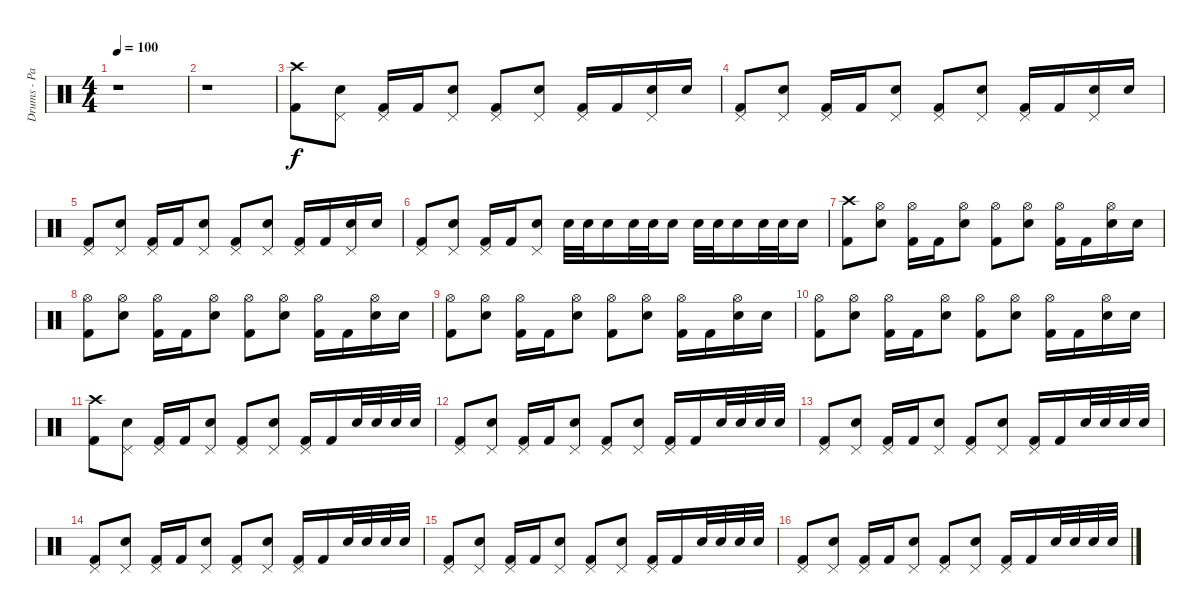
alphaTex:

\track ("Drums - Pat Thetic" "Drums - Pa") {instrument percussion}
\staff {score}
\articulation defaults
\ts (4 4)
\tempo 100
\clef neutral
\ks c
r.1{dy f} |
r.1 |
("Crash high (hit)" "Kick (hit) 2").8 ("Pedal Hi-Hat (hit)" "Electric Snare (hit)").8 ("Pedal Hi-Hat (hit)" "Kick (hit) 2").16 "Kick (hit) 2".16 ("Pedal Hi-Hat (hit)" "Electric Snare (hit)").8 ("Pedal Hi-Hat (hit)" "Kick (hit) 2").8 ("Pedal Hi-Hat (hit)" "Electric Snare (hit)").8 ("Pedal Hi-Hat (hit)" "Kick (hit) 2").16 "Kick (hit) 2".16 ("Pedal Hi-Hat (hit)" "Electric Snare (hit)").16 "Electric Snare (hit)".16 |
("Pedal Hi-Hat (hit)" "Kick (hit) 2").8 ("Pedal Hi-Hat (hit)" "Electric Snare (hit)").8 ("Pedal Hi-Hat (hit)" "Kick (hit) 2").16 "Kick (hit) 2".16 ("Pedal Hi-Hat (hit)" "Electric Snare (hit)").8 ("Pedal Hi-Hat (hit)" "Kick (hit) 2").8 ("Pedal Hi-Hat (hit)" "Electric Snare (hit)").8 ("Pedal Hi-Hat (hit)" "Kick (hit) 2").16 "Kick (hit) 2".16 ("Pedal Hi-Hat (hit)" "Electric Snare (hit)").16 "Electric Snare (hit)".16 |
("Pedal Hi-Hat (hit)" "Kick (hit) 2").8 ("Pedal Hi-Hat (hit)" "Electric Snare (hit)").8 ("Pedal Hi-Hat (hit)" "Kick (hit) 2").16 "Kick (hit) 2".16 ("Pedal Hi-Hat (hit)" "Electric Snare (hit)").8 ("Pedal Hi-Hat (hit)" "Kick (hit) 2").8 ("Pedal Hi-Hat (hit)" "Electric Snare (hit)").8 ("Pedal Hi-Hat (hit)" "Kick (hit) 2").16 "Kick (hit) 2".16 ("Pedal Hi-Hat (hit)" "Electric Snare (hit)").16 "Electric Snare (hit)".16 |
("Pedal Hi-Hat (hit)" "Kick (hit) 2").8 ("Pedal Hi-Hat (hit)" "Electric Snare (hit)").8 ("Pedal Hi-Hat (hit)" "Kick (hit) 2").16 "Kick (hit) 2".16 ("Pedal Hi-Hat (hit)" "Electric Snare (hit)").8 "Electric Snare (hit)".32 "Electric Snare (hit)".32 "Electric Snare (hit)".16 "Electric Snare (hit)".32 "Electric Snare (hit)".32 "Electric Snare (hit)".16 "Electric Snare (hit)".32 "Electric Snare (hit)".32 "Electric Snare (hit)".16 "Electric Snare (hit)".32 "Electric Snare (hit)".32 "Electric Snare (hit)".16 |
("Crash high (hit)" "Kick (hit) 2").8 ("Hi-Hat (open)" "Electric Snare (hit)").8 ("Hi-Hat (open)" "Kick (hit) 2").16 "Kick (hit) 2".16 ("Hi-Hat (open)" "Electric Snare (hit)").8 ("Hi-Hat (open)" "Kick (hit) 2").8 ("Hi-Hat (open)" "Electric Snare (hit)").8 ("Hi-Hat (open)" "Kick (hit) 2").16 "Kick (hit) 2".16 ("Hi-Hat (open)" "Electric Snare (hit)").16 "Electric Snare (hit)".16 |
("Hi-Hat (open)" "Kick (hit) 2").8 ("Hi-Hat (open)" "Electric Snare (hit)").8 ("Hi-Hat (open)" "Kick (hit) 2").16 "Kick (hit) 2".16 ("Hi-Hat (open)" "Electric Snare (hit)").8 ("Hi-Hat (open)" "Kick (hit) 2").8 ("Hi-Hat (open)" "Electric Snare (hit)").8 ("Hi-Hat (open)" "Kick (hit) 2").16 "Kick (hit) 2".16 ("Hi-Hat (open)" "Electric Snare (hit)").16 "Electric Snare (hit)".16 |
("Hi-Hat (open)" "Kick (hit) 2").8 ("Hi-Hat (open)" "Electric Snare (hit)").8 ("Hi-Hat (open)" "Kick (hit) 2").16 "Kick (hit) 2".16 ("Hi-Hat (open)" "Electric Snare (hit)").8 ("Hi-Hat (open)" "Kick (hit) 2").8 ("Hi-Hat (open)" "Electric Snare (hit)").8 ("Hi-Hat (open)" "Kick (hit) 2").16 "Kick (hit) 2".16 ("Hi-Hat (open)" "Electric Snare (hit)").16 "Electric Snare (hit)".16 |
("Hi-Hat (open)" "Kick (hit) 2").8 ("Hi-Hat (open)" "Electric Snare (hit)").8 ("Hi-Hat (open)" "Kick (hit) 2").16 "Kick (hit) 2".16 ("Hi-Hat (open)" "Electric Snare (hit)").8 ("Hi-Hat (open)" "Kick (hit) 2").8 ("Hi-Hat (open)" "Electric Snare (hit)").8 ("Hi-Hat (open)" "Kick (hit) 2").16 "Kick (hit) 2".16 ("Hi-Hat (open)" "Electric Snare (hit)").16 "Electric Snare (hit)".16 |
("Crash high (hit)" "Kick (hit) 2").8 ("Pedal Hi-Hat (hit)" "Electric Snare (hit)").8 ("Pedal Hi-Hat (hit)" "Kick (hit) 2").16 "Kick (hit) 2".16 ("Pedal Hi-Hat (hit)" "Electric Snare (hit)").8 ("Pedal Hi-Hat (hit)" "Kick (hit) 2").8 ("Pedal Hi-Hat (hit)" "Electric Snare (hit)").8 ("Pedal Hi-Hat (hit)" "Kick (hit) 2").16 "Kick (hit) 2".16 "Electric Snare (hit)".32 "Electric Snare (hit)".32 "Electric Snare (hit)".32 "Electric Snare (hit)".32 |
("Pedal Hi-Hat (hit)" "Kick (hit) 2").8 ("Pedal Hi-Hat (hit)" "Electric Snare (hit)").8 ("Pedal Hi-Hat (hit)" "Kick (hit) 2").16 "Kick (hit) 2".16 ("Pedal Hi-Hat (hit)" "Electric Snare (hit)").8 ("Pedal Hi-Hat (hit)" "Kick (hit) 2").8 ("Pedal Hi-Hat (hit)" "Electric Snare (hit)").8 ("Pedal Hi-Hat (hit)" "Kick (hit) 2").16 "Kick (hit) 2".16 "Electric Snare (hit)".32 "Electric Snare (hit)".32 "Electric Snare (hit)".32 "Electric Snare (hit)".32 |
("Pedal Hi-Hat (hit)" "Kick (hit) 2").8 ("Pedal Hi-Hat (hit)" "Electric Snare (hit)").8 ("Pedal Hi-Hat (hit)" "Kick (hit) 2").16 "Kick (hit) 2".16 ("Pedal Hi-Hat (hit)" "Electric Snare (hit)").8 ("Pedal Hi-Hat (hit)" "Kick (hit) 2").8 ("Pedal Hi-Hat (hit)" "Electric Snare (hit)").8 ("Pedal Hi-Hat (hit)" "Kick (hit) 2").16 "Kick (hit) 2".16 "Electric Snare (hit)".32 "Electric Snare (hit)".32 "Electric Snare (hit)".32 "Electric Snare (hit)".32 |
("Pedal Hi-Hat (hit)" "Kick (hit) 2").8 ("Pedal Hi-Hat (hit)" "Electric Snare (hit)").8 ("Pedal Hi-Hat (hit)" "Kick (hit) 2").16 "Kick (hit) 2".16 ("Pedal Hi-Hat (hit)" "Electric Snare (hit)").8 ("Pedal Hi-Hat (hit)" "Kick (hit) 2").8 ("Pedal Hi-Hat (hit)" "Electric Snare (hit)").8 ("Pedal Hi-Hat (hit)" "Kick (hit) 2").16 "Kick (hit) 2".16 "Electric Snare (hit)".32 "Electric Snare (hit)".32 "Electric Snare (hit)".32 "Electric Snare (hit)".32 |
("Pedal Hi-Hat (hit)" "Kick (hit) 2").8 ("Pedal Hi-Hat (hit)" "Electric Snare (hit)").8 ("Pedal Hi-Hat (hit)" "Kick (hit) 2").16 "Kick (hit) 2".16 ("Pedal Hi-Hat (hit)" "Electric Snare (hit)").8 ("Pedal Hi-Hat (hit)" "Kick (hit) 2").8 ("Pedal Hi-Hat (hit)" "Electric Snare (hit)").8 ("Pedal Hi-Hat (hit)" "Kick (hit) 2").16 "Kick (hit) 2".16 "Electric Snare (hit)".32 "Electric Snare (hit)".32 "Electric Snare (hit)".32 "Electric Snare (hit)".32 |
("Pedal Hi-Hat (hit)" "Kick (hit) 2").8 ("Pedal Hi-Hat (hit)" "Electric Snare (hit)").8 ("Pedal Hi-Hat (hit)" "Kick (hit) 2").16 "Kick (hit) 2".16 ("Pedal Hi-Hat (hit)" "Electric Snare (hit)").8 ("Pedal Hi-Hat (hit)" "Kick (hit) 2").8 ("Pedal Hi-Hat (hit)" "Electric Snare (hit)").8 ("Pedal Hi-Hat (hit)" "Kick (hit) 2").16 "Kick (hit) 2".16 "Electric Snare (hit)".32 "Electric Snare (hit)".32 "Electric Snare (hit)".32 "Electric Snare (hit)".32
